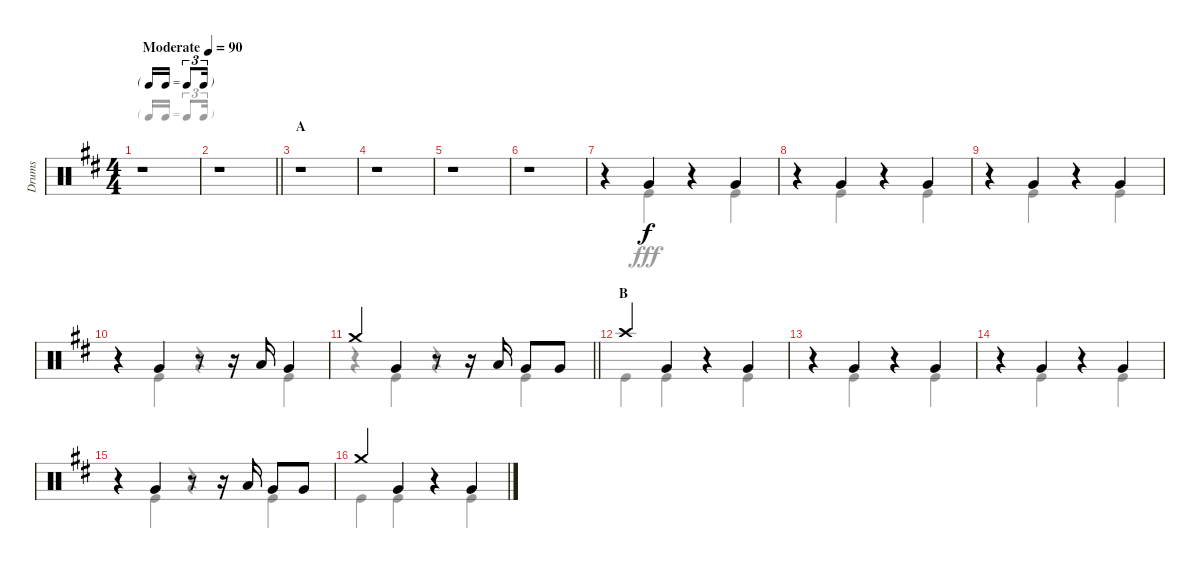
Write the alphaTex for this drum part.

\track ("Drums" "Drums") {instrument percussion}
\staff {score}
\articulation defaults
\voice
\ts (4 4)
\tf triplet16th
\tempo (90 "Moderate")
\clef neutral
\ks d
r.1{dy f} |
\barLineRight lightlight
r.1 |
\section ("" "A")
r.1 |
r.1 |
r.1 |
r.1 |
r.4 "Very Low Tom (hit)".4 r.4 "Very Low Tom (hit)".4 |
r.4 "Very Low Tom (hit)".4 r.4 "Very Low Tom (hit)".4 |
r.4 "Very Low Tom (hit)".4 r.4 "Very Low Tom (hit)".4 |
r.4 "Very Low Tom (hit)".4 r.8 r.16 "Low Tom (hit)".16 "Very Low Tom (hit)".4 |
\barLineRight lightlight "Crash medium (hit)".4 "Very Low Tom (hit)".4
r.8 r.16 "Low Tom (hit)".16 "Very Low Tom (hit)".8 "Very Low Tom (hit)".8 |
\section ("" "B")
"Crash high (hit)".4 "Very Low Tom (hit)".4 r.4 "Very Low Tom (hit)".4 |
r.4 "Very Low Tom (hit)".4 r.4 "Very Low Tom (hit)".4 |
r.4 "Very Low Tom (hit)".4 r.4 "Very Low Tom (hit)".4 |
r.4 "Very Low Tom (hit)".4 r.8 r.16 "Low Tom (hit)".16 "Very Low Tom (hit)".8 "Very Low Tom (hit)".8 |
"Crash medium (hit)".4 "Very Low Tom (hit)".4 r.4 "Very Low Tom (hit)".4
\voice
\clef neutral
\ottava regular
\simile none
\ks d
r.1{dy fff} |
\barLineRight lightlight
r.1 |
r.1 |
r.1 |
r.1 |
r.1 |
r.4 "Kick (hit)".4 r.4 "Kick (hit)".4 |
r.4 "Kick (hit)".4 r.4 "Kick (hit)".4 |
r.4 "Kick (hit)".4 r.4 "Kick (hit)".4 |
r.4 "Kick (hit)".4 r.4 "Kick (hit)".4 |
\barLineRight lightlight
r.4 "Kick (hit)".4 r.4 "Kick (hit)".4 |
"Kick (hit)".4 "Kick (hit)".4 r.4 "Kick (hit)".4 |
r.4 "Kick (hit)".4 r.4 "Kick (hit)".4 |
r.4 "Kick (hit)".4 r.4 "Kick (hit)".4 |
r.4 "Kick (hit)".4 r.4 "Kick (hit)".4 |
"Kick (hit)".4 "Kick (hit)".4 r.4 "Kick (hit)".4
